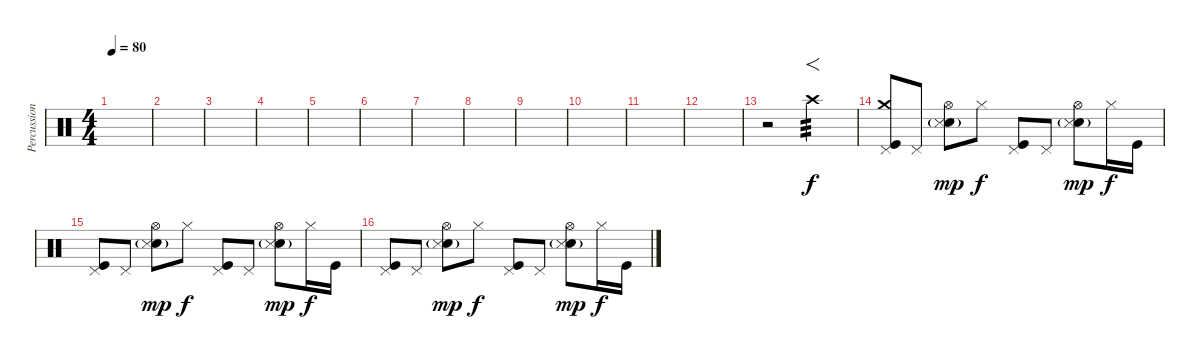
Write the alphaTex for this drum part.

\track ("Percussions" "Percussion") {instrument percussion}
\staff {score}
\articulation defaults
\ts (4 4)
\tempo 80
\clef neutral
\ks c
|
|
|
|
|
|
|
|
|
|
|
|
r.2 "Crash high (hit)".2{f tp 3} |
("Pedal Hi-Hat (hit)" "Crash medium (hit)" "Kick (hit)").8 "Pedal Hi-Hat (hit)".8 ("Hi-Hat (open)" "Electric Snare (hit)"{g} "Snare (side stick) 3").8{dy mp} "Hi-Hat (closed)".8{dy f} ("Pedal Hi-Hat (hit)" "Kick (hit)").8 "Pedal Hi-Hat (hit)".8 ("Hi-Hat (open)" "Electric Snare (hit)"{g} "Snare (side stick) 3").8{dy mp} "Hi-Hat (closed)".16{dy f} "Kick (hit)".16 |
("Pedal Hi-Hat (hit)" "Kick (hit)").8 "Pedal Hi-Hat (hit)".8 ("Hi-Hat (open)" "Electric Snare (hit)"{g} "Snare (side stick) 3").8{dy mp} "Hi-Hat (closed)".8{dy f} ("Pedal Hi-Hat (hit)" "Kick (hit)").8 "Pedal Hi-Hat (hit)".8 ("Hi-Hat (open)" "Electric Snare (hit)"{g} "Snare (side stick) 3").8{dy mp} "Hi-Hat (closed)".16{dy f} "Kick (hit)".16 |
("Pedal Hi-Hat (hit)" "Kick (hit)").8 "Pedal Hi-Hat (hit)".8 ("Hi-Hat (open)" "Electric Snare (hit)"{g} "Snare (side stick) 3").8{dy mp} "Hi-Hat (closed)".8{dy f} ("Pedal Hi-Hat (hit)" "Kick (hit)").8 "Pedal Hi-Hat (hit)".8 ("Hi-Hat (open)" "Electric Snare (hit)"{g} "Snare (side stick) 3").8{dy mp} "Hi-Hat (closed)".16{dy f} "Kick (hit)".16
